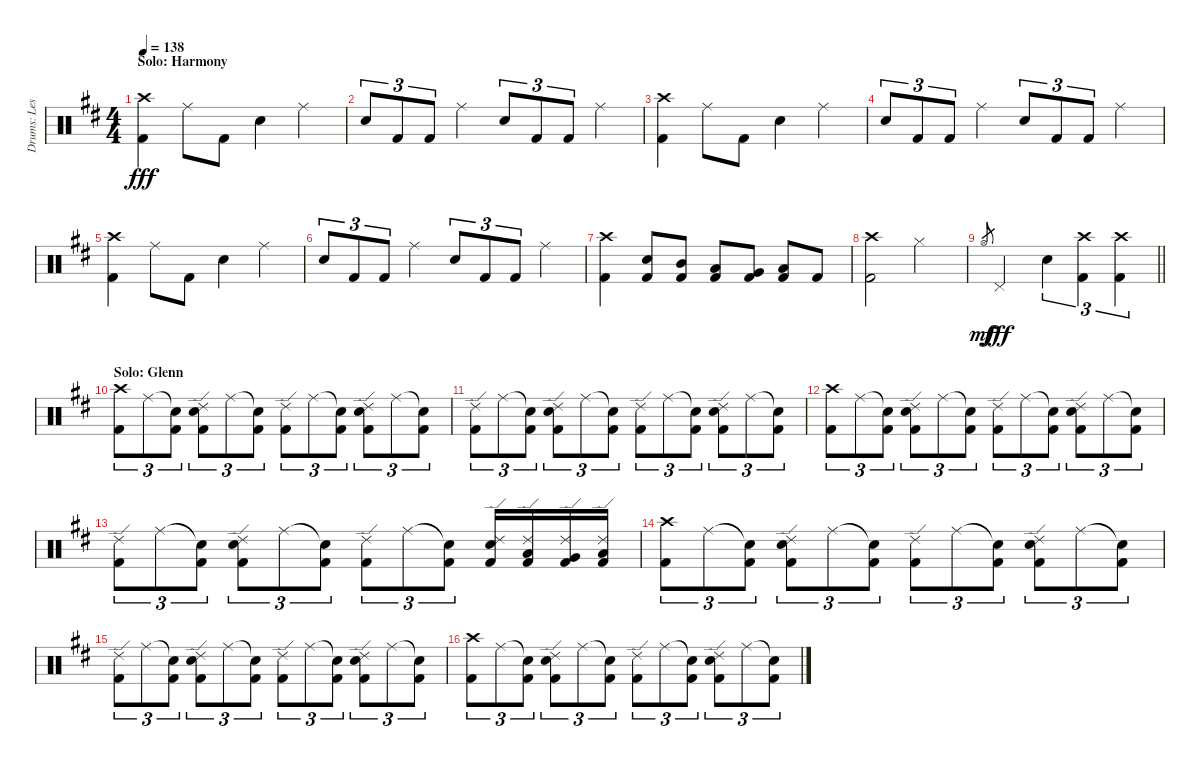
\track ("Drums: Les" "Drums: Les") {instrument percussion}
\staff {score}
\articulation defaults
\ts (4 4)
\section ("" "Solo: Harmony")
\tempo 138
\clef neutral
\ks d
("Crash high (hit)" "Kick (hit) 2").4{dy fff} "Ride (middle)".8 "Kick (hit) 2".8 "Snare (hit) 2".4 "Ride (middle)".4 |
"Snare (hit) 2".8{tu (3 2)} "Kick (hit) 2".8{tu (3 2)} "Kick (hit) 2".8{tu (3 2)} "Ride (middle)".4 "Snare (hit) 2".8{tu (3 2)} "Kick (hit) 2".8{tu (3 2)} "Kick (hit) 2".8{tu (3 2)} "Ride (middle)".4 |
("Crash high (hit)" "Kick (hit) 2").4 "Ride (middle)".8 "Kick (hit) 2".8 "Snare (hit) 2".4 "Ride (middle)".4 |
"Snare (hit) 2".8{tu (3 2)} "Kick (hit) 2".8{tu (3 2)} "Kick (hit) 2".8{tu (3 2)} "Ride (middle)".4 "Snare (hit) 2".8{tu (3 2)} "Kick (hit) 2".8{tu (3 2)} "Kick (hit) 2".8{tu (3 2)} "Ride (middle)".4 |
("Crash high (hit)" "Kick (hit) 2").4 "Ride (middle)".8 "Kick (hit) 2".8 "Snare (hit) 2".4 "Ride (middle)".4 |
"Snare (hit) 2".8{tu (3 2)} "Kick (hit) 2".8{tu (3 2)} "Kick (hit) 2".8{tu (3 2)} "Ride (middle)".4 "Snare (hit) 2".8{tu (3 2)} "Kick (hit) 2".8{tu (3 2)} "Kick (hit) 2".8{tu (3 2)} "Ride (middle)".4 |
("Crash high (hit)" "Kick (hit) 2").4 ("Snare (hit) 2" "Kick (hit) 2").8 ("Mid Tom (hit)" "Kick (hit) 2").8 ("Low Tom (hit)" "Kick (hit) 2").8 ("Very Low Tom (hit)" "Kick (hit) 2").8 ("Low Floor Tom (hit)" "Kick (hit) 2").8 "Kick (hit) 2".8 |
("Crash high (hit)" "Kick (hit) 2").2 "Hi-Hat (closed)".2 |
\barLineRight lightlight "Hi-Hat (open)".8{gr dy mf} "Pedal Hi-Hat (hit)".2{dy fff} "Snare (hit) 2".4{tu (3 2)}
("Crash high (hit)" "Kick (hit) 2").4{tu (3 2)} ("Crash high (hit)" "Kick (hit) 2").4{tu (3 2)} |
\section ("" "Solo: Glenn")
("Crash high (hit)" "Kick (hit) 2").8{tu (3 2)} "Ride (middle)".8{tu (3 2)} ("Snare (hit)"{t} "Kick (hit) 2").8{tu (3 2)} ("Ride (edge) 2" "Snare (hit) 2" "Kick (hit) 2").8{tu (3 2)} "Ride (middle)".8{tu (3 2)} ("Snare (hit)"{t} "Kick (hit) 2").8{tu (3 2)} ("Ride (edge) 2" "Kick (hit) 2").8{tu (3 2)} "Ride (middle)".8{tu (3 2)} ("Snare (hit)"{t} "Kick (hit) 2").8{tu (3 2)} ("Ride (edge) 2" "Snare (hit) 2" "Kick (hit) 2").8{tu (3 2)} "Ride (middle)".8{tu (3 2)} ("Snare (hit)"{t} "Kick (hit) 2").8{tu (3 2)} |
("Ride (edge) 2" "Kick (hit) 2").8{tu (3 2)} "Ride (middle)".8{tu (3 2)} ("Snare (hit)"{t} "Kick (hit) 2").8{tu (3 2)} ("Ride (edge) 2" "Snare (hit) 2" "Kick (hit) 2").8{tu (3 2)} "Ride (middle)".8{tu (3 2)} ("Snare (hit)"{t} "Kick (hit) 2").8{tu (3 2)} ("Ride (edge) 2" "Kick (hit) 2").8{tu (3 2)} "Ride (middle)".8{tu (3 2)} ("Snare (hit)"{t} "Kick (hit) 2").8{tu (3 2)} ("Ride (edge) 2" "Snare (hit) 2" "Kick (hit) 2").8{tu (3 2)} "Ride (middle)".8{tu (3 2)} ("Snare (hit)"{t} "Kick (hit) 2").8{tu (3 2)} |
("Crash high (hit)" "Kick (hit) 2").8{tu (3 2)} "Ride (middle)".8{tu (3 2)} ("Snare (hit)"{t} "Kick (hit) 2").8{tu (3 2)} ("Ride (edge) 2" "Snare (hit) 2" "Kick (hit) 2").8{tu (3 2)} "Ride (middle)".8{tu (3 2)} ("Snare (hit)"{t} "Kick (hit) 2").8{tu (3 2)} ("Ride (edge) 2" "Kick (hit) 2").8{tu (3 2)} "Ride (middle)".8{tu (3 2)} ("Snare (hit)"{t} "Kick (hit) 2").8{tu (3 2)} ("Ride (edge) 2" "Snare (hit) 2" "Kick (hit) 2").8{tu (3 2)} "Ride (middle)".8{tu (3 2)} ("Snare (hit)"{t} "Kick (hit) 2").8{tu (3 2)} |
("Ride (edge) 2" "Kick (hit) 2").8{tu (3 2)} "Ride (middle)".8{tu (3 2)} ("Snare (hit)"{t} "Kick (hit) 2").8{tu (3 2)} ("Ride (edge) 2" "Snare (hit) 2" "Kick (hit) 2").8{tu (3 2)} "Ride (middle)".8{tu (3 2)} ("Snare (hit)"{t} "Kick (hit) 2").8{tu (3 2)} ("Ride (edge) 2" "Kick (hit) 2").8{tu (3 2)} "Ride (middle)".8{tu (3 2)} ("Snare (hit)"{t} "Kick (hit) 2").8{tu (3 2)} ("Ride (edge) 2" "Snare (hit) 2" "Kick (hit) 2").16 ("Ride (edge) 2" "Low Tom (hit)" "Kick (hit) 2").16 ("Ride (edge) 2" "Very Low Tom (hit)" "Kick (hit) 2").16 ("Ride (edge) 2" "Low Floor Tom (hit)" "Kick (hit) 2").16 |
("Crash high (hit)" "Kick (hit) 2").8{tu (3 2)} "Ride (middle)".8{tu (3 2)} ("Snare (hit)"{t} "Kick (hit) 2").8{tu (3 2)} ("Ride (edge) 2" "Snare (hit) 2" "Kick (hit) 2").8{tu (3 2)} "Ride (middle)".8{tu (3 2)} ("Snare (hit)"{t} "Kick (hit) 2").8{tu (3 2)} ("Ride (edge) 2" "Kick (hit) 2").8{tu (3 2)} "Ride (middle)".8{tu (3 2)} ("Snare (hit)"{t} "Kick (hit) 2").8{tu (3 2)} ("Ride (edge) 2" "Snare (hit) 2" "Kick (hit) 2").8{tu (3 2)} "Ride (middle)".8{tu (3 2)} ("Snare (hit)"{t} "Kick (hit) 2").8{tu (3 2)} |
("Ride (edge) 2" "Kick (hit) 2").8{tu (3 2)} "Ride (middle)".8{tu (3 2)} ("Snare (hit)"{t} "Kick (hit) 2").8{tu (3 2)} ("Ride (edge) 2" "Snare (hit) 2" "Kick (hit) 2").8{tu (3 2)} "Ride (middle)".8{tu (3 2)} ("Snare (hit)"{t} "Kick (hit) 2").8{tu (3 2)} ("Ride (edge) 2" "Kick (hit) 2").8{tu (3 2)} "Ride (middle)".8{tu (3 2)} ("Snare (hit)"{t} "Kick (hit) 2").8{tu (3 2)} ("Ride (edge) 2" "Snare (hit) 2" "Kick (hit) 2").8{tu (3 2)} "Ride (middle)".8{tu (3 2)} ("Snare (hit)"{t} "Kick (hit) 2").8{tu (3 2)} |
("Crash high (hit)" "Kick (hit) 2").8{tu (3 2)} "Ride (middle)".8{tu (3 2)} ("Snare (hit)"{t} "Kick (hit) 2").8{tu (3 2)} ("Ride (edge) 2" "Snare (hit) 2" "Kick (hit) 2").8{tu (3 2)} "Ride (middle)".8{tu (3 2)} ("Snare (hit)"{t} "Kick (hit) 2").8{tu (3 2)} ("Ride (edge) 2" "Kick (hit) 2").8{tu (3 2)} "Ride (middle)".8{tu (3 2)} ("Snare (hit)"{t} "Kick (hit) 2").8{tu (3 2)} ("Ride (edge) 2" "Snare (hit) 2" "Kick (hit) 2").8{tu (3 2)} "Ride (middle)".8{tu (3 2)} ("Snare (hit)"{t} "Kick (hit) 2").8{tu (3 2)}
